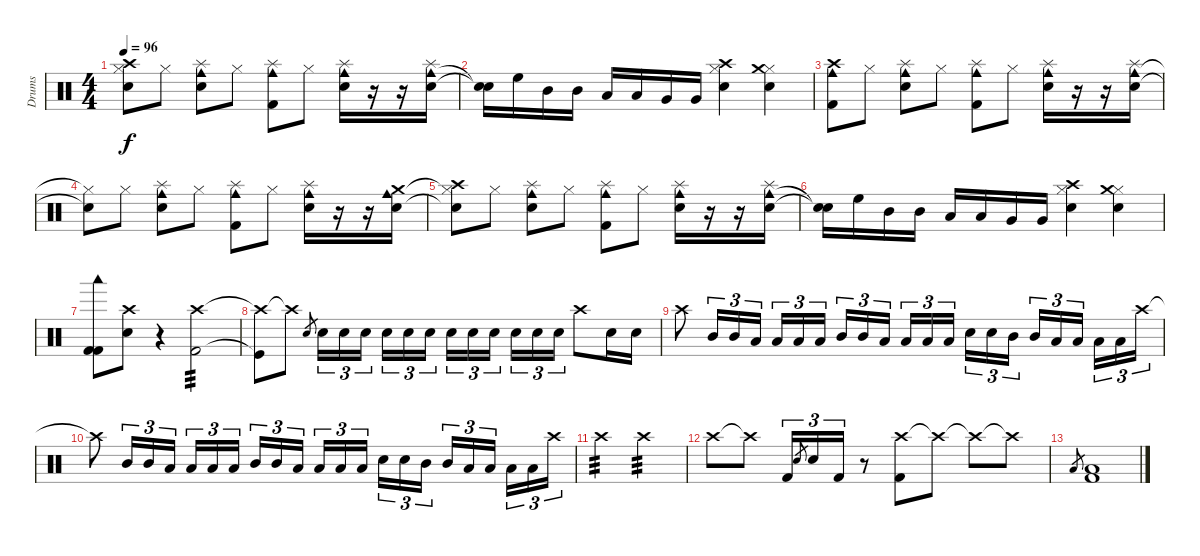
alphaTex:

\track ("Drums" "Drums") {instrument percussion}
\staff {score}
\articulation defaults
\ts (4 4)
\tempo 96
\clef neutral
\ks c
("Snare (hit) 2"{t} "Hi-Hat (closed)"{t} "Crash high (hit)").8{dy f} "Hi-Hat (closed)".8 ("Snare (hit) 2" "Cowbell medium (hit)" "Splash (hit)").8 "Hi-Hat (closed)".8 ("Kick (hit) 2" "Cowbell medium (hit)" "Splash (hit)").8 "Hi-Hat (closed)".8 ("Snare (hit) 2" "Cowbell medium (hit)" "Splash (hit)").16 r.16 r.16 ("Snare (hit) 2" "Cowbell medium (hit)" "Splash (hit)").16 |
("Snare (hit)"{t} "Snare (hit)"{t}).16 "High Floor Tom (hit)".16 "Mid Tom (hit)".16 "Mid Tom (hit)".16 "Low Tom (hit)".16 "Low Tom (hit)".16 "Very Low Tom (hit)".16 "Very Low Tom (hit)".16 ("Snare (hit) 2" "Hi-Hat (closed)" "Crash high (hit)").4 ("Snare (hit) 2" "Hi-Hat (closed)" "Crash medium (hit)").4 |
("Kick (hit) 2" "Cowbell medium (hit)" "Crash high (hit)").8 "Hi-Hat (closed)".8 ("Snare (hit) 2" "Cowbell medium (hit)" "Splash (hit)").8 "Hi-Hat (closed)".8 ("Kick (hit) 2" "Cowbell medium (hit)" "Splash (hit)").8 "Hi-Hat (closed)".8 ("Snare (hit) 2" "Cowbell medium (hit)" "Splash (hit)").16 r.16 r.16 ("Snare (hit) 2" "Cowbell medium (hit)" "Splash (hit)").16 |
("Snare (hit) 2"{t} "Hi-Hat (closed)"{t}).8 "Hi-Hat (closed)".8 ("Snare (hit) 2" "Cowbell medium (hit)" "Splash (hit)").8 "Hi-Hat (closed)".8 ("Kick (hit) 2" "Cowbell medium (hit)" "Splash (hit)").8 "Hi-Hat (closed)".8 ("Snare (hit) 2" "Cowbell medium (hit)" "Splash (hit)").16 r.16 r.16 ("Snare (hit) 2" "Cowbell medium (hit)" "Crash medium (hit)").16 |
("Snare (hit) 2"{t} "Hi-Hat (closed)"{t} "Crash high (hit)").8 "Hi-Hat (closed)".8 ("Snare (hit) 2" "Cowbell medium (hit)" "Splash (hit)").8 "Hi-Hat (closed)".8 ("Kick (hit) 2" "Cowbell medium (hit)" "Splash (hit)").8 "Hi-Hat (closed)".8 ("Snare (hit) 2" "Cowbell medium (hit)" "Splash (hit)").16 r.16 r.16 ("Snare (hit) 2" "Cowbell medium (hit)" "Splash (hit)").16 |
("Snare (hit)"{t} "Snare (hit)"{t}).16 "High Floor Tom (hit)".16 "Mid Tom (hit)".16 "Mid Tom (hit)".16 "Low Tom (hit)".16 "Low Tom (hit)".16 "Very Low Tom (hit)".16 "Very Low Tom (hit)".16 ("Snare (hit) 2" "Hi-Hat (closed)" "Crash high (hit)").4 ("Snare (hit) 2" "Hi-Hat (closed)" "Crash medium (hit)").4 |
("Kick (hit) 2" "Kick (hit) 2" "Woodblock low (hit)").8 ("Snare (hit) 2" "Crash high (hit)").8 r.4 ("Crash high (hit)" "Kick (hit) 2").2{tp 3} |
("Crash high (hit)"{t} "Kick (hit)"{t}).8 "Crash high (hit)"{t}.8 "Snare (hit) 2".8{gr} "Snare (hit) 2".16{tu (3 2)} "Snare (hit) 2".16{tu (3 2)} "Snare (hit) 2".16{tu (3 2) beam splitsecondary} "Snare (hit) 2".16{tu (3 2)} "Snare (hit) 2".16{tu (3 2)} "Snare (hit) 2".16{tu (3 2)} "Snare (hit) 2".16{tu (3 2)} "Snare (hit) 2".16{tu (3 2)} "Snare (hit) 2".16{tu (3 2) beam splitsecondary} "Snare (hit) 2".16{tu (3 2)} "Snare (hit) 2".16{tu (3 2)} "Snare (hit) 2".16{tu (3 2)} "Crash high (hit)".8 "Snare (hit) 2".16 "Snare (hit) 2".16 |
"Crash high (hit)".8 "Mid Tom (hit)".16{tu (3 2)} "Mid Tom (hit)".16{tu (3 2)} "Low Tom (hit)".16{tu (3 2)} "Low Tom (hit)".16{tu (3 2)} "Low Floor Tom (hit)".16{tu (3 2)} "Low Floor Tom (hit)".16{tu (3 2) beam splitsecondary} "Mid Tom (hit)".16{tu (3 2)} "Mid Tom (hit)".16{tu (3 2)} "Low Tom (hit)".16{tu (3 2)} "Low Tom (hit)".16{tu (3 2)} "Low Floor Tom (hit)".16{tu (3 2)} "Low Floor Tom (hit)".16{tu (3 2) beam splitsecondary} "Snare (hit) 2".16{tu (3 2)} "Snare (hit) 2".16{tu (3 2)} "Mid Tom (hit)".16{tu (3 2)} "Mid Tom (hit)".16{tu (3 2)} "Low Tom (hit)".16{tu (3 2)} "Low Tom (hit)".16{tu (3 2) beam splitsecondary} "Low Floor Tom (hit)".16{tu (3 2)} "Low Floor Tom (hit)".16{tu (3 2)} "Crash high (hit)".16{tu (3 2)} |
"Crash high (hit)"{t}.8 "Mid Tom (hit)".16{tu (3 2)} "Mid Tom (hit)".16{tu (3 2)} "Low Tom (hit)".16{tu (3 2)} "Low Tom (hit)".16{tu (3 2)} "Low Floor Tom (hit)".16{tu (3 2)} "Low Floor Tom (hit)".16{tu (3 2) beam splitsecondary} "Mid Tom (hit)".16{tu (3 2)} "Mid Tom (hit)".16{tu (3 2)} "Low Tom (hit)".16{tu (3 2)} "Low Tom (hit)".16{tu (3 2)} "Low Floor Tom (hit)".16{tu (3 2)} "Low Floor Tom (hit)".16{tu (3 2) beam splitsecondary} "Snare (hit) 2".16{tu (3 2)} "Snare (hit) 2".16{tu (3 2)} "Mid Tom (hit)".16{tu (3 2)} "Mid Tom (hit)".16{tu (3 2)} "Low Tom (hit)".16{tu (3 2)} "Low Tom (hit)".16{tu (3 2) beam splitsecondary} "Low Floor Tom (hit)".16{tu (3 2)} "Low Floor Tom (hit)".16{tu (3 2)} "Crash high (hit)".16{tu (3 2)} |
"Crash high (hit)".2{tp 3} "Crash high (hit)".2{tp 3} |
"Crash high (hit)".8 "Crash high (hit)"{t}.8 "Kick (hit) 2".16{tu (3 2)} "Snare (hit) 2".8{gr} "Snare (hit) 2".16{tu (3 2)} "Kick (hit) 2".16{tu (3 2)} r.8 ("Crash high (hit)" "Kick (hit) 2").8 "Crash high (hit)"{t}.8 "Crash high (hit)"{t}.8 "Crash high (hit)"{t}.8 |
"Low Floor Tom (hit)".8{gr} ("Kick (hit) 2" "Low Floor Tom (hit)").1
